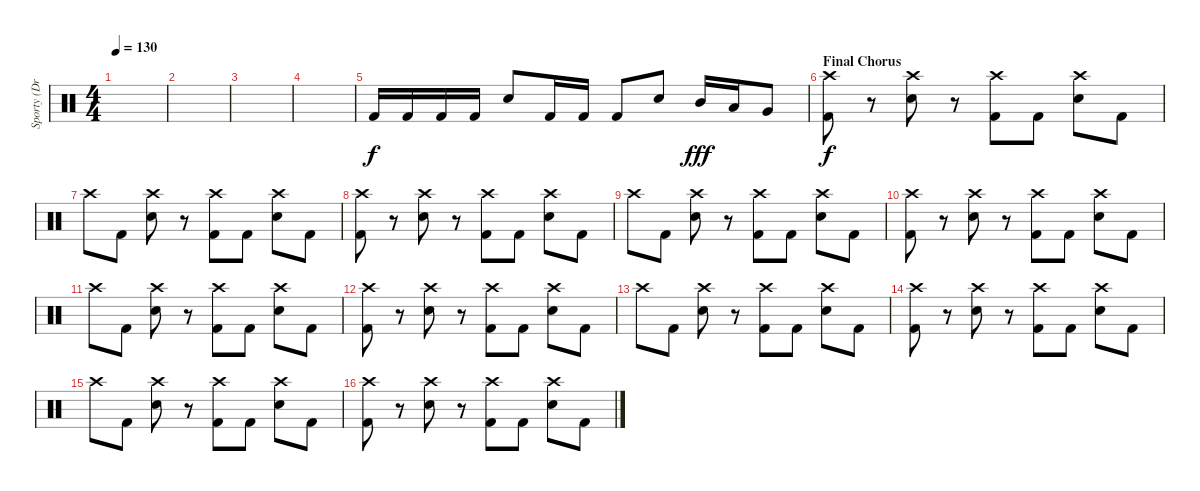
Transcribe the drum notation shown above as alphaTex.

\track ("Sporty (Drums)" "Sporty (Dr") {instrument percussion}
\staff {score}
\articulation defaults
\ts (4 4)
\tempo 130
\clef neutral
\ks c
|
|
|
|
"Kick (hit) 2".16 "Kick (hit) 2".16 "Kick (hit) 2".16 "Kick (hit) 2".16 "Snare (hit) 2".8 "Kick (hit) 2".16 "Kick (hit) 2".16 "Kick (hit) 2".8 "Snare (hit) 2".8 "Mid Tom (hit)".16{dy fff} "Low Tom (hit)".16 "Very Low Tom (hit)".8 |
\section ("" "Final Chorus")
("Crash high (hit)" "Kick (hit) 2").8{dy f} r.8 ("Crash high (hit)" "Snare (hit) 2").8 r.8 ("Crash high (hit)" "Kick (hit) 2").8 "Kick (hit) 2".8 ("Crash high (hit)" "Snare (hit) 2").8 "Kick (hit) 2".8 |
"Crash high (hit)".8 "Kick (hit) 2".8 ("Crash high (hit)" "Snare (hit) 2").8 r.8 ("Crash high (hit)" "Kick (hit) 2").8 "Kick (hit) 2".8 ("Crash high (hit)" "Snare (hit) 2").8 "Kick (hit) 2".8 |
("Crash high (hit)" "Kick (hit) 2").8 r.8 ("Crash high (hit)" "Snare (hit) 2").8 r.8 ("Crash high (hit)" "Kick (hit) 2").8 "Kick (hit) 2".8 ("Crash high (hit)" "Snare (hit) 2").8 "Kick (hit) 2".8 |
"Crash high (hit)".8 "Kick (hit) 2".8 ("Crash high (hit)" "Snare (hit) 2").8 r.8 ("Crash high (hit)" "Kick (hit) 2").8 "Kick (hit) 2".8 ("Crash high (hit)" "Snare (hit) 2").8 "Kick (hit) 2".8 |
("Crash high (hit)" "Kick (hit) 2").8 r.8 ("Crash high (hit)" "Snare (hit) 2").8 r.8 ("Crash high (hit)" "Kick (hit) 2").8 "Kick (hit) 2".8 ("Crash high (hit)" "Snare (hit) 2").8 "Kick (hit) 2".8 |
"Crash high (hit)".8 "Kick (hit) 2".8 ("Crash high (hit)" "Snare (hit) 2").8 r.8 ("Crash high (hit)" "Kick (hit) 2").8 "Kick (hit) 2".8 ("Crash high (hit)" "Snare (hit) 2").8 "Kick (hit) 2".8 |
("Crash high (hit)" "Kick (hit) 2").8 r.8 ("Crash high (hit)" "Snare (hit) 2").8 r.8 ("Crash high (hit)" "Kick (hit) 2").8 "Kick (hit) 2".8 ("Crash high (hit)" "Snare (hit) 2").8 "Kick (hit) 2".8 |
"Crash high (hit)".8 "Kick (hit) 2".8 ("Crash high (hit)" "Snare (hit) 2").8 r.8 ("Crash high (hit)" "Kick (hit) 2").8 "Kick (hit) 2".8 ("Crash high (hit)" "Snare (hit) 2").8 "Kick (hit) 2".8 |
("Crash high (hit)" "Kick (hit) 2").8 r.8 ("Crash high (hit)" "Snare (hit) 2").8 r.8 ("Crash high (hit)" "Kick (hit) 2").8 "Kick (hit) 2".8 ("Crash high (hit)" "Snare (hit) 2").8 "Kick (hit) 2".8 |
"Crash high (hit)".8 "Kick (hit) 2".8 ("Crash high (hit)" "Snare (hit) 2").8 r.8 ("Crash high (hit)" "Kick (hit) 2").8 "Kick (hit) 2".8 ("Crash high (hit)" "Snare (hit) 2").8 "Kick (hit) 2".8 |
("Crash high (hit)" "Kick (hit) 2").8 r.8 ("Crash high (hit)" "Snare (hit) 2").8 r.8 ("Crash high (hit)" "Kick (hit) 2").8 "Kick (hit) 2".8 ("Crash high (hit)" "Snare (hit) 2").8 "Kick (hit) 2".8
